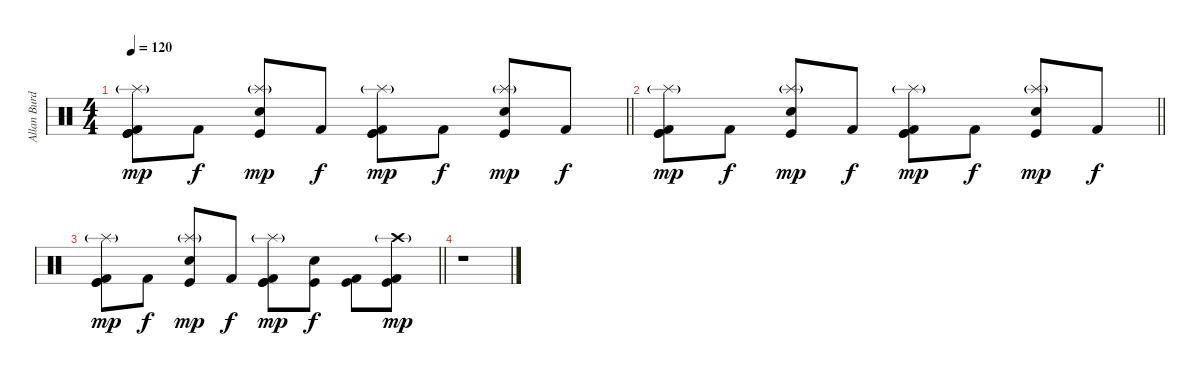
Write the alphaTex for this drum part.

\track ("Allan Burdeos(Drums)" "Allan Burd") {instrument percussion}
\staff {score}
\articulation defaults
\ts (4 4)
\tempo 120
\clef neutral
\barLineRight lightlight
\ks c
("Kick (hit)" "Kick (hit)" "Kick (hit) 2" "Splash (hit)"{g}).8{dy mp} "Kick (hit) 2".8{dy f} ("Kick (hit)" "Electric Snare (hit)" "Splash (hit)"{g}).8{dy mp} "Kick (hit) 2".8{dy f} ("Kick (hit)" "Kick (hit)" "Kick (hit) 2" "Splash (hit)"{g}).8{dy mp} "Kick (hit) 2".8{dy f} ("Kick (hit)" "Electric Snare (hit)" "Splash (hit)"{g}).8{dy mp} "Kick (hit) 2".8{dy f} |
\barLineRight lightlight
("Kick (hit)" "Kick (hit)" "Kick (hit) 2" "Splash (hit)"{g}).8{dy mp} "Kick (hit) 2".8{dy f} ("Kick (hit)" "Electric Snare (hit)" "Splash (hit)"{g}).8{dy mp} "Kick (hit) 2".8{dy f} ("Kick (hit)" "Kick (hit)" "Kick (hit) 2" "Splash (hit)"{g}).8{dy mp} "Kick (hit) 2".8{dy f} ("Kick (hit)" "Electric Snare (hit)" "Splash (hit)"{g}).8{dy mp} "Kick (hit) 2".8{dy f} |
\barLineRight lightlight
("Kick (hit)" "Kick (hit)" "Kick (hit) 2" "Splash (hit)"{g}).8{dy mp} "Kick (hit) 2".8{dy f} ("Kick (hit)" "Electric Snare (hit)" "Splash (hit)"{g}).8{dy mp} "Kick (hit) 2".8{dy f} ("Kick (hit)" "Kick (hit)" "Kick (hit) 2" "Splash (hit)"{g}).8{dy mp} ("Kick (hit)" "Electric Snare (hit)").8{dy f} ("Kick (hit)" "Kick (hit) 2").8 ("Crash high (hit)"{g} "Kick (hit) 2" "Kick (hit)").8{dy mp} |
r.1
